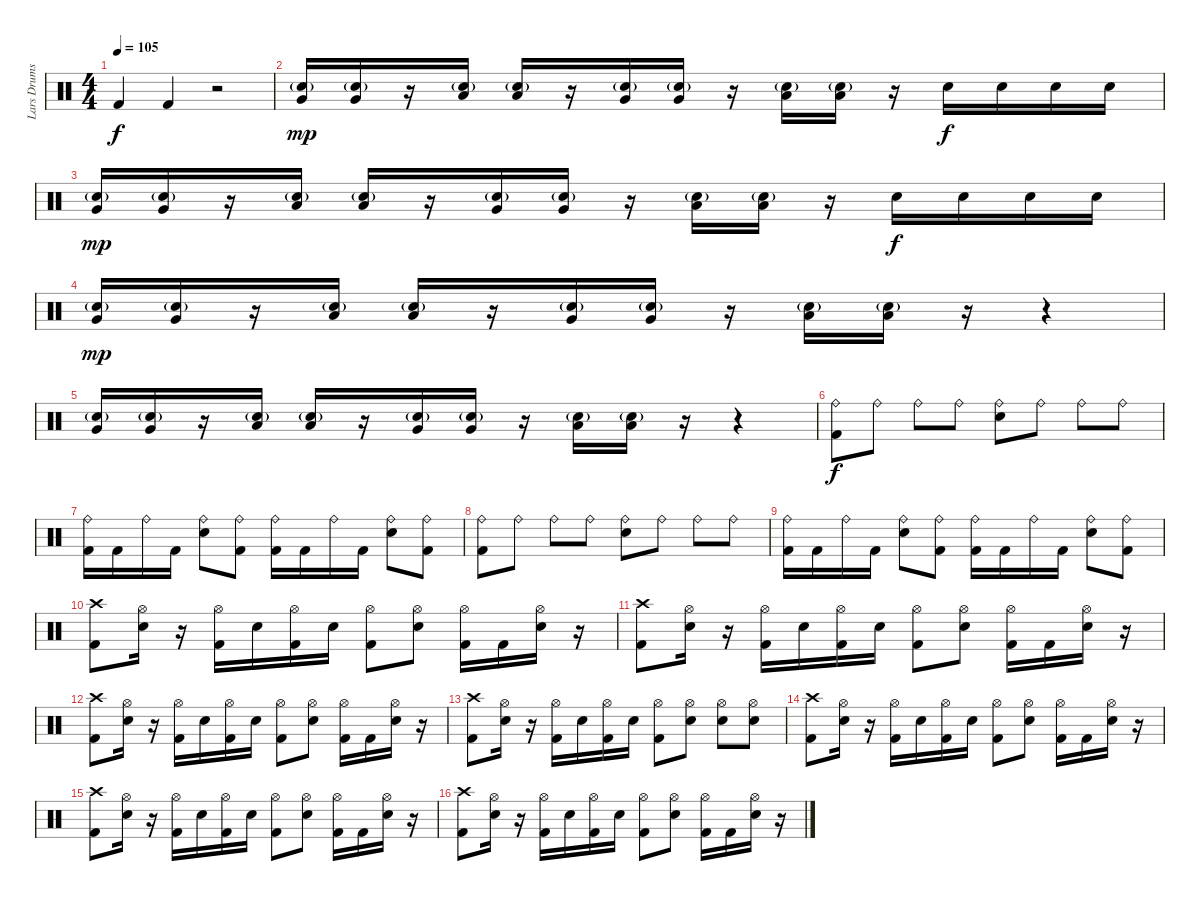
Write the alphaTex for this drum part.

\track ("Lars Drums" "Lars Drums") {instrument percussion}
\staff {score}
\articulation defaults
\ts (4 4)
\tempo 105
\clef neutral
\ks c "Kick (hit) 2".4{dy f} "Kick (hit) 2".4
r.2 |
("Snare (hit) 2"{g} "Very Low Tom (hit)").16{dy mp} ("Snare (hit) 2"{g} "Very Low Tom (hit)").16 r.16 ("Snare (hit) 2"{g} "Low Floor Tom (hit)").16 ("Snare (hit) 2"{g} "Low Floor Tom (hit)").16 r.16 ("Snare (hit) 2"{g} "Very Low Tom (hit)").16 ("Snare (hit) 2"{g} "Very Low Tom (hit)").16 r.16 ("Snare (hit) 2"{g} "Low Floor Tom (hit)").16 ("Snare (hit) 2"{g} "Low Floor Tom (hit)").16 r.16 "Snare (hit) 2".16{dy f} "Snare (hit) 2".16 "Snare (hit) 2".16 "Snare (hit) 2".16 |
("Snare (hit) 2"{g} "Very Low Tom (hit)").16{dy mp} ("Snare (hit) 2"{g} "Very Low Tom (hit)").16 r.16 ("Snare (hit) 2"{g} "Low Floor Tom (hit)").16 ("Snare (hit) 2"{g} "Low Floor Tom (hit)").16 r.16 ("Snare (hit) 2"{g} "Very Low Tom (hit)").16 ("Snare (hit) 2"{g} "Very Low Tom (hit)").16 r.16 ("Snare (hit) 2"{g} "Low Floor Tom (hit)").16 ("Snare (hit) 2"{g} "Low Floor Tom (hit)").16 r.16 "Snare (hit) 2".16{dy f} "Snare (hit) 2".16 "Snare (hit) 2".16 "Snare (hit) 2".16 |
("Snare (hit) 2"{g} "Very Low Tom (hit)").16{dy mp} ("Snare (hit) 2"{g} "Very Low Tom (hit)").16 r.16 ("Snare (hit) 2"{g} "Low Floor Tom (hit)").16 ("Snare (hit) 2"{g} "Low Floor Tom (hit)").16 r.16 ("Snare (hit) 2"{g} "Very Low Tom (hit)").16 ("Snare (hit) 2"{g} "Very Low Tom (hit)").16 r.16 ("Snare (hit) 2"{g} "Low Floor Tom (hit)").16 ("Snare (hit) 2"{g} "Low Floor Tom (hit)").16 r.16 r.4 |
("Snare (hit) 2"{g} "Very Low Tom (hit)").16 ("Snare (hit) 2"{g} "Very Low Tom (hit)").16 r.16 ("Snare (hit) 2"{g} "Low Floor Tom (hit)").16 ("Snare (hit) 2"{g} "Low Floor Tom (hit)").16 r.16 ("Snare (hit) 2"{g} "Very Low Tom (hit)").16 ("Snare (hit) 2"{g} "Very Low Tom (hit)").16 r.16 ("Snare (hit) 2"{g} "Low Floor Tom (hit)").16 ("Snare (hit) 2"{g} "Low Floor Tom (hit)").16 r.16 r.4 |
("Ride (bell)" "Kick (hit) 2").8{dy f} "Ride (bell)".8 "Ride (bell)".8 "Ride (bell)".8 ("Ride (bell)" "Snare (hit) 2").8 "Ride (bell)".8 "Ride (bell)".8 "Ride (bell)".8 |
("Ride (bell)" "Kick (hit) 2").16 "Kick (hit) 2".16 "Ride (bell)".16 "Kick (hit) 2".16 ("Ride (bell)" "Snare (hit) 2").8 ("Ride (bell)" "Kick (hit) 2").8 ("Ride (bell)" "Kick (hit) 2").16 "Kick (hit) 2".16 "Ride (bell)".16 "Kick (hit) 2".16 ("Ride (bell)" "Snare (hit) 2").8 ("Ride (bell)" "Kick (hit) 2").8 |
("Ride (bell)" "Kick (hit) 2").8 "Ride (bell)".8 "Ride (bell)".8 "Ride (bell)".8 ("Ride (bell)" "Snare (hit) 2").8 "Ride (bell)".8 "Ride (bell)".8 "Ride (bell)".8 |
("Ride (bell)" "Kick (hit) 2").16 "Kick (hit) 2".16 "Ride (bell)".16 "Kick (hit) 2".16 ("Ride (bell)" "Snare (hit) 2").8 ("Ride (bell)" "Kick (hit) 2").8 ("Ride (bell)" "Kick (hit) 2").16 "Kick (hit) 2".16 "Ride (bell)".16 "Kick (hit) 2".16 ("Ride (bell)" "Snare (hit) 2").8 ("Ride (bell)" "Kick (hit) 2").8 |
("Crash high (hit)" "Kick (hit) 2").8 ("Hi-Hat (open)" "Snare (hit) 2").16 r.16 ("Hi-Hat (open)" "Kick (hit) 2").16 "Snare (hit) 2".16 ("Hi-Hat (open)" "Kick (hit) 2").16 "Snare (hit) 2".16 ("Hi-Hat (open)" "Kick (hit) 2").8 ("Hi-Hat (open)" "Snare (hit) 2").8 ("Hi-Hat (open)" "Kick (hit) 2").16 "Kick (hit) 2".16 ("Hi-Hat (open)" "Snare (hit) 2").16 r.16 |
("Crash high (hit)" "Kick (hit) 2").8 ("Hi-Hat (open)" "Snare (hit) 2").16 r.16 ("Hi-Hat (open)" "Kick (hit) 2").16 "Snare (hit) 2".16 ("Hi-Hat (open)" "Kick (hit) 2").16 "Snare (hit) 2".16 ("Hi-Hat (open)" "Kick (hit) 2").8 ("Hi-Hat (open)" "Snare (hit) 2").8 ("Hi-Hat (open)" "Kick (hit) 2").16 "Kick (hit) 2".16 ("Hi-Hat (open)" "Snare (hit) 2").16 r.16 |
("Crash high (hit)" "Kick (hit) 2").8 ("Hi-Hat (open)" "Snare (hit) 2").16 r.16 ("Hi-Hat (open)" "Kick (hit) 2").16 "Snare (hit) 2".16 ("Hi-Hat (open)" "Kick (hit) 2").16 "Snare (hit) 2".16 ("Hi-Hat (open)" "Kick (hit) 2").8 ("Hi-Hat (open)" "Snare (hit) 2").8 ("Hi-Hat (open)" "Kick (hit) 2").16 "Kick (hit) 2".16 ("Hi-Hat (open)" "Snare (hit) 2").16 r.16 |
("Crash high (hit)" "Kick (hit) 2").8 ("Hi-Hat (open)" "Snare (hit) 2").16 r.16 ("Hi-Hat (open)" "Kick (hit) 2").16 "Snare (hit) 2".16 ("Hi-Hat (open)" "Kick (hit) 2").16 "Snare (hit) 2".16 ("Hi-Hat (open)" "Kick (hit) 2").8 ("Hi-Hat (open)" "Snare (hit) 2").8 ("Hi-Hat (open)" "Snare (hit) 2").8 ("Hi-Hat (open)" "Snare (hit) 2").8 |
("Crash high (hit)" "Kick (hit) 2").8 ("Hi-Hat (open)" "Snare (hit) 2").16 r.16 ("Hi-Hat (open)" "Kick (hit) 2").16 "Snare (hit) 2".16 ("Hi-Hat (open)" "Kick (hit) 2").16 "Snare (hit) 2".16 ("Hi-Hat (open)" "Kick (hit) 2").8 ("Hi-Hat (open)" "Snare (hit) 2").8 ("Hi-Hat (open)" "Kick (hit) 2").16 "Kick (hit) 2".16 ("Hi-Hat (open)" "Snare (hit) 2").16 r.16 |
("Crash high (hit)" "Kick (hit) 2").8 ("Hi-Hat (open)" "Snare (hit) 2").16 r.16 ("Hi-Hat (open)" "Kick (hit) 2").16 "Snare (hit) 2".16 ("Hi-Hat (open)" "Kick (hit) 2").16 "Snare (hit) 2".16 ("Hi-Hat (open)" "Kick (hit) 2").8 ("Hi-Hat (open)" "Snare (hit) 2").8 ("Hi-Hat (open)" "Kick (hit) 2").16 "Kick (hit) 2".16 ("Hi-Hat (open)" "Snare (hit) 2").16 r.16 |
("Crash high (hit)" "Kick (hit) 2").8 ("Hi-Hat (open)" "Snare (hit) 2").16 r.16 ("Hi-Hat (open)" "Kick (hit) 2").16 "Snare (hit) 2".16 ("Hi-Hat (open)" "Kick (hit) 2").16 "Snare (hit) 2".16 ("Hi-Hat (open)" "Kick (hit) 2").8 ("Hi-Hat (open)" "Snare (hit) 2").8 ("Hi-Hat (open)" "Kick (hit) 2").16 "Kick (hit) 2".16 ("Hi-Hat (open)" "Snare (hit) 2").16 r.16
